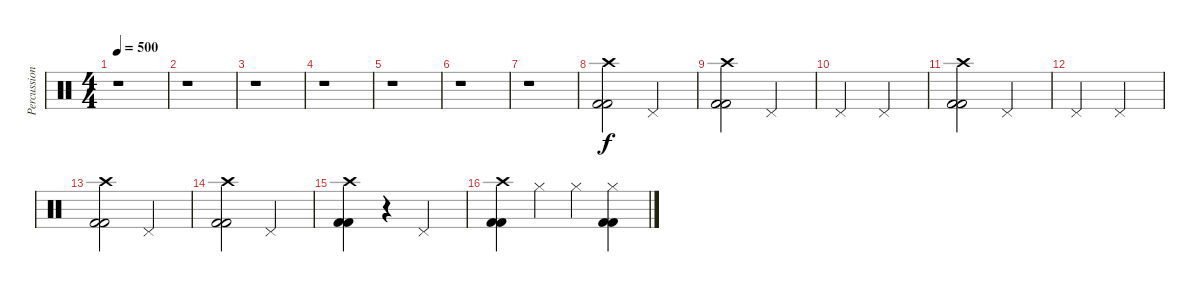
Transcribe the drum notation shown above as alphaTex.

\track ("Percussion" "Percussion") {instrument percussion}
\staff {score}
\articulation defaults
\ts (4 4)
\tempo 500
\clef neutral
\ks c
r.1{dy f} |
r.1 |
r.1 |
r.1 |
r.1 |
r.1 |
r.1 |
("Crash high (hit)" "Kick (hit) 2" "Kick (hit) 2").2 "Pedal Hi-Hat (hit)".2 |
("Crash high (hit)" "Kick (hit) 2" "Kick (hit) 2").2 "Pedal Hi-Hat (hit)".2 |
"Pedal Hi-Hat (hit)".2 "Pedal Hi-Hat (hit)".2 |
("Crash high (hit)" "Kick (hit) 2" "Kick (hit) 2").2 "Pedal Hi-Hat (hit)".2 |
"Pedal Hi-Hat (hit)".2 "Pedal Hi-Hat (hit)".2 |
("Crash high (hit)" "Kick (hit) 2" "Kick (hit) 2").2 "Pedal Hi-Hat (hit)".2 |
("Crash high (hit)" "Kick (hit) 2" "Kick (hit) 2").2 "Pedal Hi-Hat (hit)".2 |
("Crash high (hit)" "Kick (hit) 2" "Kick (hit) 2").4 r.4 "Pedal Hi-Hat (hit)".2 |
("Crash high (hit)" "Kick (hit) 2" "Kick (hit) 2").4 "Hi-Hat (closed)".4 "Hi-Hat (closed)".4 ("Hi-Hat (closed)" "Kick (hit) 2" "Kick (hit) 2").4
